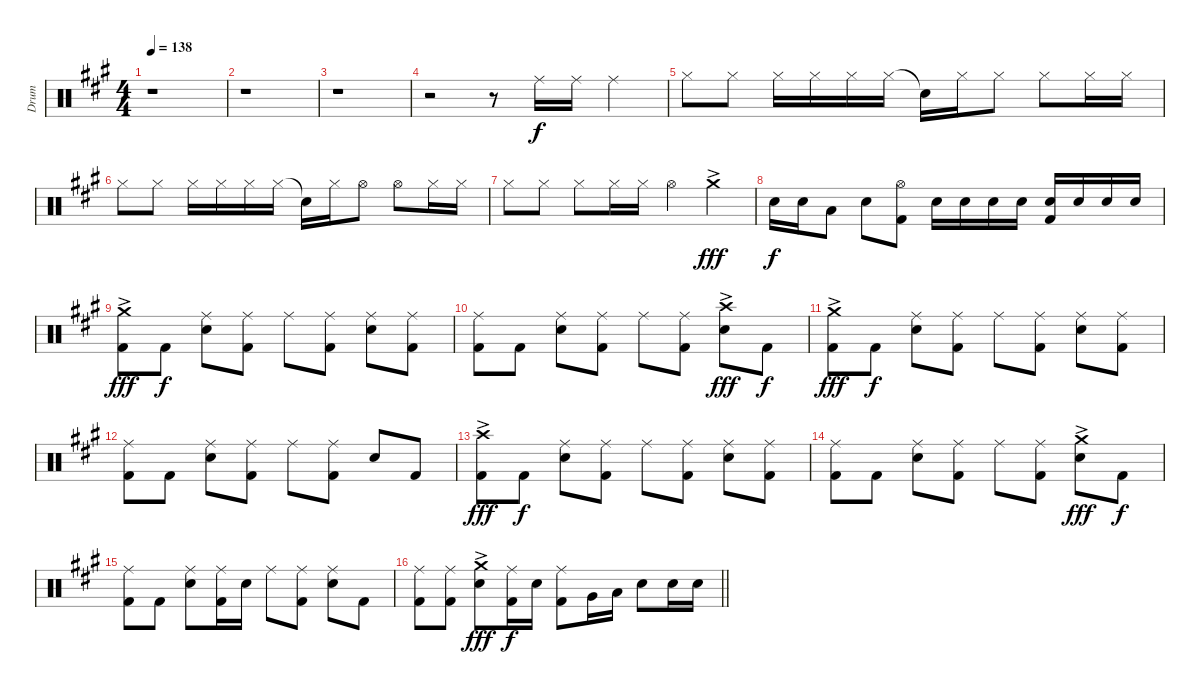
\track ("Drum" "Drum") {instrument percussion}
\staff {score}
\articulation defaults
\ts (4 4)
\tempo 138
\clef neutral
\ks a
r.1{dy f} |
r.1 |
r.1 |
r.2 r.8 "Ride (middle)".16 "Ride (middle)".16 "Ride (middle)".4 |
"Hi-Hat (closed)".8 "Hi-Hat (closed)".8 "Hi-Hat (closed)".16 "Hi-Hat (closed)".16 "Hi-Hat (closed)".16 "Hi-Hat (closed)".16 "Snare (hit)"{t}.16 "Hi-Hat (closed)".16 "Hi-Hat (closed)".8 "Hi-Hat (closed)".8 "Hi-Hat (closed)".16 "Hi-Hat (closed)".16 |
"Hi-Hat (closed)".8 "Hi-Hat (closed)".8 "Hi-Hat (closed)".16 "Hi-Hat (closed)".16 "Hi-Hat (closed)".16 "Hi-Hat (closed)".16 "Snare (hit)"{t}.16 "Hi-Hat (closed)".16 "Hi-Hat (open)".8 "Hi-Hat (open)".8 "Hi-Hat (closed)".16 "Hi-Hat (closed)".16 |
"Hi-Hat (closed)".8 "Hi-Hat (closed)".8 "Hi-Hat (closed)".8 "Hi-Hat (closed)".16 "Hi-Hat (closed)".16 "Hi-Hat (open)".4 "Crash medium (hit)"{ac}.4{dy fff} |
"Snare (hit) 2".16{dy f} "Snare (hit) 2".16 "Low Tom (hit)".8 "Snare (hit) 2".8 ("Hi-Hat (open)" "Kick (hit) 2").8 "Snare (hit) 2".16 "Snare (hit) 2".16 "Snare (hit) 2".16 "Snare (hit) 2".16 ("Snare (hit) 2" "Kick (hit) 2").16 "Snare (hit) 2".16 "Snare (hit) 2".16 "Snare (hit) 2".16 |
("Crash medium (hit)"{ac} "Kick (hit) 2").8{dy fff} "Kick (hit) 2".8{dy f} ("Ride (middle)" "Snare (hit) 2").8 ("Ride (middle)" "Kick (hit) 2").8 "Ride (middle)".8 ("Ride (middle)" "Kick (hit) 2").8 ("Ride (middle)" "Snare (hit) 2").8 ("Ride (middle)" "Kick (hit) 2").8 |
("Ride (middle)" "Kick (hit) 2").8 "Kick (hit) 2".8 ("Ride (middle)" "Snare (hit) 2").8 ("Ride (middle)" "Kick (hit) 2").8 "Ride (middle)".8 ("Ride (middle)" "Kick (hit) 2").8 ("Crash high (hit)"{ac} "Snare (hit) 2").8{dy fff} "Kick (hit) 2".8{dy f} |
("Crash medium (hit)"{ac} "Kick (hit) 2").8{dy fff} "Kick (hit) 2".8{dy f} ("Ride (middle)" "Snare (hit) 2").8 ("Ride (middle)" "Kick (hit) 2").8 "Ride (middle)".8 ("Ride (middle)" "Kick (hit) 2").8 ("Ride (middle)" "Snare (hit) 2").8 ("Ride (middle)" "Kick (hit) 2").8 |
("Ride (middle)" "Kick (hit) 2").8 "Kick (hit) 2".8 ("Ride (middle)" "Snare (hit) 2").8 ("Ride (middle)" "Kick (hit) 2").8 "Ride (middle)".8 ("Ride (middle)" "Kick (hit) 2").8 "Snare (hit) 2".8 "Kick (hit) 2".8 |
("Crash high (hit)"{ac} "Kick (hit) 2").8{dy fff} "Kick (hit) 2".8{dy f} ("Ride (middle)" "Snare (hit) 2").8 ("Ride (middle)" "Kick (hit) 2").8 "Ride (middle)".8 ("Ride (middle)" "Kick (hit) 2").8 ("Ride (middle)" "Snare (hit) 2").8 ("Ride (middle)" "Kick (hit) 2").8 |
("Ride (middle)" "Kick (hit) 2").8 "Kick (hit) 2".8 ("Ride (middle)" "Snare (hit) 2").8 ("Ride (middle)" "Kick (hit) 2").8 "Ride (middle)".8 ("Ride (middle)" "Kick (hit) 2").8 ("Crash medium (hit)"{ac} "Snare (hit) 2").8{dy fff} "Kick (hit) 2".8{dy f} |
("Ride (middle)" "Kick (hit) 2").8 "Kick (hit) 2".8 ("Ride (middle)" "Snare (hit) 2").8 ("Ride (middle)" "Kick (hit) 2").16 "Snare (hit) 2".16 "Ride (middle)".8 ("Ride (middle)" "Kick (hit) 2").8 ("Ride (middle)" "Snare (hit) 2").8 "Kick (hit) 2".8 |
\barLineRight lightlight
("Ride (middle)" "Kick (hit) 2").8 ("Ride (middle)" "Kick (hit) 2").8 ("Crash medium (hit)"{ac} "Snare (hit) 2").8{dy fff} ("Ride (middle)" "Kick (hit) 2").16{dy f} "Snare (hit) 2".16 ("Ride (middle)" "Kick (hit) 2").8 "Very Low Tom (hit)".16 "Low Floor Tom (hit)".16 "Snare (hit) 2".8 "Snare (hit) 2".16 "Snare (hit) 2".16
